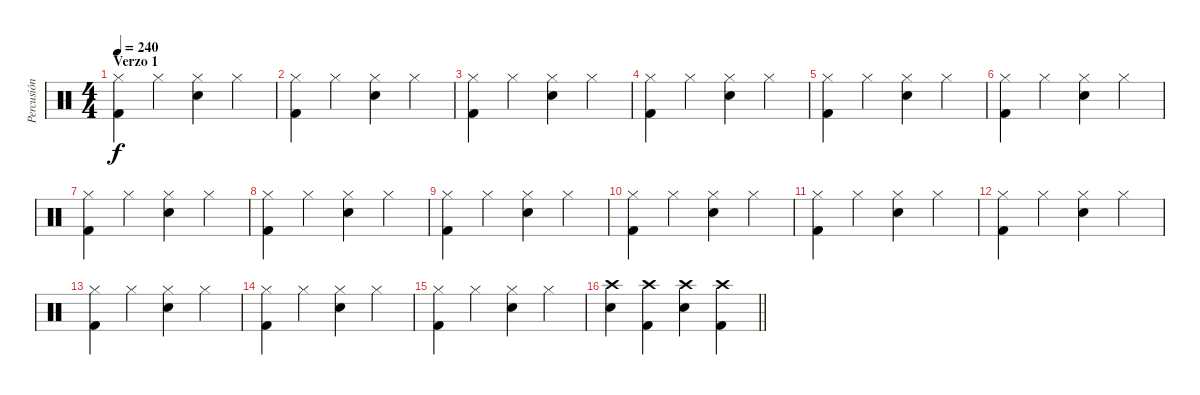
\track ("Percusión" "Percusión") {instrument percussion}
\staff {score}
\articulation defaults
\ts (4 4)
\section ("" "Verzo 1")
\tempo 240
\clef neutral
\ks c
("Hi-Hat (closed)" "Kick (hit) 2").4{dy f} "Hi-Hat (closed)".4 ("Hi-Hat (closed)" "Electric Snare (hit)").4 "Hi-Hat (closed)".4 |
("Hi-Hat (closed)" "Kick (hit) 2").4 "Hi-Hat (closed)".4 ("Hi-Hat (closed)" "Electric Snare (hit)").4 "Hi-Hat (closed)".4 |
("Hi-Hat (closed)" "Kick (hit) 2").4 "Hi-Hat (closed)".4 ("Hi-Hat (closed)" "Electric Snare (hit)").4 "Hi-Hat (closed)".4 |
("Hi-Hat (closed)" "Kick (hit) 2").4 "Hi-Hat (closed)".4 ("Hi-Hat (closed)" "Electric Snare (hit)").4 "Hi-Hat (closed)".4 |
("Hi-Hat (closed)" "Kick (hit) 2").4 "Hi-Hat (closed)".4 ("Hi-Hat (closed)" "Electric Snare (hit)").4 "Hi-Hat (closed)".4 |
("Hi-Hat (closed)" "Kick (hit) 2").4 "Hi-Hat (closed)".4 ("Hi-Hat (closed)" "Electric Snare (hit)").4 "Hi-Hat (closed)".4 |
("Hi-Hat (closed)" "Kick (hit) 2").4 "Hi-Hat (closed)".4 ("Hi-Hat (closed)" "Electric Snare (hit)").4 "Hi-Hat (closed)".4 |
("Hi-Hat (closed)" "Kick (hit) 2").4 "Hi-Hat (closed)".4 ("Hi-Hat (closed)" "Electric Snare (hit)").4 "Hi-Hat (closed)".4 |
("Hi-Hat (closed)" "Kick (hit) 2").4 "Hi-Hat (closed)".4 ("Hi-Hat (closed)" "Electric Snare (hit)").4 "Hi-Hat (closed)".4 |
("Hi-Hat (closed)" "Kick (hit) 2").4 "Hi-Hat (closed)".4 ("Hi-Hat (closed)" "Electric Snare (hit)").4 "Hi-Hat (closed)".4 |
("Hi-Hat (closed)" "Kick (hit) 2").4 "Hi-Hat (closed)".4 ("Hi-Hat (closed)" "Electric Snare (hit)").4 "Hi-Hat (closed)".4 |
("Hi-Hat (closed)" "Kick (hit) 2").4 "Hi-Hat (closed)".4 ("Hi-Hat (closed)" "Electric Snare (hit)").4 "Hi-Hat (closed)".4 |
("Hi-Hat (closed)" "Kick (hit) 2").4 "Hi-Hat (closed)".4 ("Hi-Hat (closed)" "Electric Snare (hit)").4 "Hi-Hat (closed)".4 |
("Hi-Hat (closed)" "Kick (hit) 2").4 "Hi-Hat (closed)".4 ("Hi-Hat (closed)" "Electric Snare (hit)").4 "Hi-Hat (closed)".4 |
("Hi-Hat (closed)" "Kick (hit) 2").4 "Hi-Hat (closed)".4 ("Hi-Hat (closed)" "Electric Snare (hit)").4 "Hi-Hat (closed)".4 |
\barLineRight lightlight
("Crash high (hit)" "Electric Snare (hit)").4 ("Crash high (hit)" "Kick (hit) 2").4 ("Crash high (hit)" "Electric Snare (hit)").4 ("Crash high (hit)" "Kick (hit) 2").4
